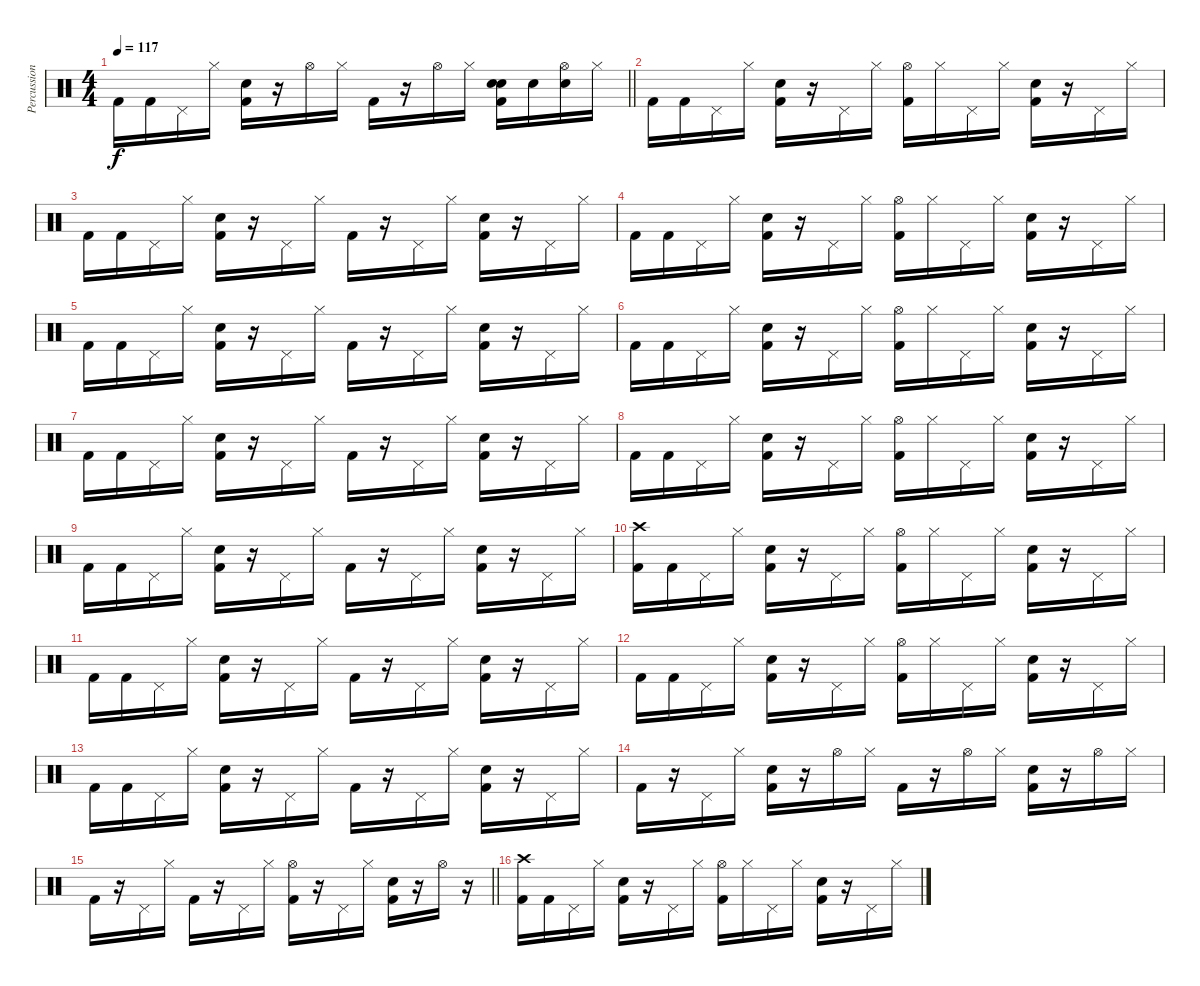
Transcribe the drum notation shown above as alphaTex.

\track ("Percussion" "Percussion") {instrument percussion}
\staff {score}
\articulation defaults
\ts (4 4)
\tempo 117
\clef neutral
\barLineRight lightlight
\ks c "Kick (hit) 2".16{dy f} "Kick (hit) 2".16 "Pedal Hi-Hat (hit)".16 "Hi-Hat (closed)".16
("Snare (hit) 2" "Kick (hit) 2").16 r.16 "Hi-Hat (open)".16 "Hi-Hat (closed)".16 "Kick (hit) 2".16 r.16 "Hi-Hat (open)".16 "Hi-Hat (closed)".16 ("Hand Clap (hit)" "Snare (hit) 2" "Kick (hit) 2").16 "Hand Clap (hit)".16 ("Hi-Hat (open)" "Hand Clap (hit)").16 "Hi-Hat (closed)".16 |
"Kick (hit) 2".16 "Kick (hit) 2".16 "Pedal Hi-Hat (hit)".16 "Hi-Hat (closed)".16 ("Snare (hit) 2" "Kick (hit) 2").16 r.16 "Pedal Hi-Hat (hit)".16 "Hi-Hat (closed)".16 ("Hi-Hat (open)" "Kick (hit) 2").16 "Hi-Hat (closed)".16 "Pedal Hi-Hat (hit)".16 "Hi-Hat (closed)".16 ("Snare (hit) 2" "Kick (hit) 2").16 r.16 "Pedal Hi-Hat (hit)".16 "Hi-Hat (closed)".16 |
"Kick (hit) 2".16 "Kick (hit) 2".16 "Pedal Hi-Hat (hit)".16 "Hi-Hat (closed)".16 ("Snare (hit) 2" "Kick (hit) 2").16 r.16 "Pedal Hi-Hat (hit)".16 "Hi-Hat (closed)".16 "Kick (hit) 2".16 r.16 "Pedal Hi-Hat (hit)".16 "Hi-Hat (closed)".16 ("Snare (hit) 2" "Kick (hit) 2").16 r.16 "Pedal Hi-Hat (hit)".16 "Hi-Hat (closed)".16 |
"Kick (hit) 2".16 "Kick (hit) 2".16 "Pedal Hi-Hat (hit)".16 "Hi-Hat (closed)".16 ("Snare (hit) 2" "Kick (hit) 2").16 r.16 "Pedal Hi-Hat (hit)".16 "Hi-Hat (closed)".16 ("Hi-Hat (open)" "Kick (hit) 2").16 "Hi-Hat (closed)".16 "Pedal Hi-Hat (hit)".16 "Hi-Hat (closed)".16 ("Snare (hit) 2" "Kick (hit) 2").16 r.16 "Pedal Hi-Hat (hit)".16 "Hi-Hat (closed)".16 |
"Kick (hit) 2".16 "Kick (hit) 2".16 "Pedal Hi-Hat (hit)".16 "Hi-Hat (closed)".16 ("Snare (hit) 2" "Kick (hit) 2").16 r.16 "Pedal Hi-Hat (hit)".16 "Hi-Hat (closed)".16 "Kick (hit) 2".16 r.16 "Pedal Hi-Hat (hit)".16 "Hi-Hat (closed)".16 ("Snare (hit) 2" "Kick (hit) 2").16 r.16 "Pedal Hi-Hat (hit)".16 "Hi-Hat (closed)".16 |
"Kick (hit) 2".16 "Kick (hit) 2".16 "Pedal Hi-Hat (hit)".16 "Hi-Hat (closed)".16 ("Snare (hit) 2" "Kick (hit) 2").16 r.16 "Pedal Hi-Hat (hit)".16 "Hi-Hat (closed)".16 ("Hi-Hat (open)" "Kick (hit) 2").16 "Hi-Hat (closed)".16 "Pedal Hi-Hat (hit)".16 "Hi-Hat (closed)".16 ("Snare (hit) 2" "Kick (hit) 2").16 r.16 "Pedal Hi-Hat (hit)".16 "Hi-Hat (closed)".16 |
"Kick (hit) 2".16 "Kick (hit) 2".16 "Pedal Hi-Hat (hit)".16 "Hi-Hat (closed)".16 ("Snare (hit) 2" "Kick (hit) 2").16 r.16 "Pedal Hi-Hat (hit)".16 "Hi-Hat (closed)".16 "Kick (hit) 2".16 r.16 "Pedal Hi-Hat (hit)".16 "Hi-Hat (closed)".16 ("Snare (hit) 2" "Kick (hit) 2").16 r.16 "Pedal Hi-Hat (hit)".16 "Hi-Hat (closed)".16 |
"Kick (hit) 2".16 "Kick (hit) 2".16 "Pedal Hi-Hat (hit)".16 "Hi-Hat (closed)".16 ("Snare (hit) 2" "Kick (hit) 2").16 r.16 "Pedal Hi-Hat (hit)".16 "Hi-Hat (closed)".16 ("Hi-Hat (open)" "Kick (hit) 2").16 "Hi-Hat (closed)".16 "Pedal Hi-Hat (hit)".16 "Hi-Hat (closed)".16 ("Snare (hit) 2" "Kick (hit) 2").16 r.16 "Pedal Hi-Hat (hit)".16 "Hi-Hat (closed)".16 |
"Kick (hit) 2".16 "Kick (hit) 2".16 "Pedal Hi-Hat (hit)".16 "Hi-Hat (closed)".16 ("Snare (hit) 2" "Kick (hit) 2").16 r.16 "Pedal Hi-Hat (hit)".16 "Hi-Hat (closed)".16 "Kick (hit) 2".16 r.16 "Pedal Hi-Hat (hit)".16 "Hi-Hat (closed)".16 ("Snare (hit) 2" "Kick (hit) 2").16 r.16 "Pedal Hi-Hat (hit)".16 "Hi-Hat (closed)".16 |
("Crash high (hit)" "Kick (hit) 2").16 "Kick (hit) 2".16 "Pedal Hi-Hat (hit)".16 "Hi-Hat (closed)".16 ("Snare (hit) 2" "Kick (hit) 2").16 r.16 "Pedal Hi-Hat (hit)".16 "Hi-Hat (closed)".16 ("Hi-Hat (open)" "Kick (hit) 2").16 "Hi-Hat (closed)".16 "Pedal Hi-Hat (hit)".16 "Hi-Hat (closed)".16 ("Snare (hit) 2" "Kick (hit) 2").16 r.16 "Pedal Hi-Hat (hit)".16 "Hi-Hat (closed)".16 |
"Kick (hit) 2".16 "Kick (hit) 2".16 "Pedal Hi-Hat (hit)".16 "Hi-Hat (closed)".16 ("Snare (hit) 2" "Kick (hit) 2").16 r.16 "Pedal Hi-Hat (hit)".16 "Hi-Hat (closed)".16 "Kick (hit) 2".16 r.16 "Pedal Hi-Hat (hit)".16 "Hi-Hat (closed)".16 ("Snare (hit) 2" "Kick (hit) 2").16 r.16 "Pedal Hi-Hat (hit)".16 "Hi-Hat (closed)".16 |
"Kick (hit) 2".16 "Kick (hit) 2".16 "Pedal Hi-Hat (hit)".16 "Hi-Hat (closed)".16 ("Snare (hit) 2" "Kick (hit) 2").16 r.16 "Pedal Hi-Hat (hit)".16 "Hi-Hat (closed)".16 ("Hi-Hat (open)" "Kick (hit) 2").16 "Hi-Hat (closed)".16 "Pedal Hi-Hat (hit)".16 "Hi-Hat (closed)".16 ("Snare (hit) 2" "Kick (hit) 2").16 r.16 "Pedal Hi-Hat (hit)".16 "Hi-Hat (closed)".16 |
"Kick (hit) 2".16 "Kick (hit) 2".16 "Pedal Hi-Hat (hit)".16 "Hi-Hat (closed)".16 ("Snare (hit) 2" "Kick (hit) 2").16 r.16 "Pedal Hi-Hat (hit)".16 "Hi-Hat (closed)".16 "Kick (hit) 2".16 r.16 "Pedal Hi-Hat (hit)".16 "Hi-Hat (closed)".16 ("Snare (hit) 2" "Kick (hit) 2").16 r.16 "Pedal Hi-Hat (hit)".16 "Hi-Hat (closed)".16 |
"Kick (hit) 2".16 r.16 "Pedal Hi-Hat (hit)".16 "Hi-Hat (closed)".16 ("Snare (hit) 2" "Kick (hit) 2").16 r.16 "Hi-Hat (open)".16 "Hi-Hat (closed)".16 "Kick (hit) 2".16 r.16 "Hi-Hat (open)".16 "Hi-Hat (closed)".16 ("Snare (hit) 2" "Kick (hit) 2").16 r.16 "Hi-Hat (open)".16 "Hi-Hat (closed)".16 |
\barLineRight lightlight "Kick (hit) 2".16
r.16 "Pedal Hi-Hat (hit)".16 "Hi-Hat (closed)".16 "Kick (hit) 2".16 r.16 "Pedal Hi-Hat (hit)".16 "Hi-Hat (closed)".16 ("Hi-Hat (open)" "Kick (hit) 2").16 r.16 "Pedal Hi-Hat (hit)".16 "Hi-Hat (closed)".16 ("Snare (hit) 2" "Kick (hit) 2").16 r.16 "Hi-Hat (open)".16 r.16 |
("Crash high (hit)" "Kick (hit) 2").16 "Kick (hit) 2".16 "Pedal Hi-Hat (hit)".16 "Hi-Hat (closed)".16 ("Snare (hit) 2" "Kick (hit) 2").16 r.16 "Pedal Hi-Hat (hit)".16 "Hi-Hat (closed)".16 ("Hi-Hat (open)" "Kick (hit) 2").16 "Hi-Hat (closed)".16 "Pedal Hi-Hat (hit)".16 "Hi-Hat (closed)".16 ("Snare (hit) 2" "Kick (hit) 2").16 r.16 "Pedal Hi-Hat (hit)".16 "Hi-Hat (closed)".16
